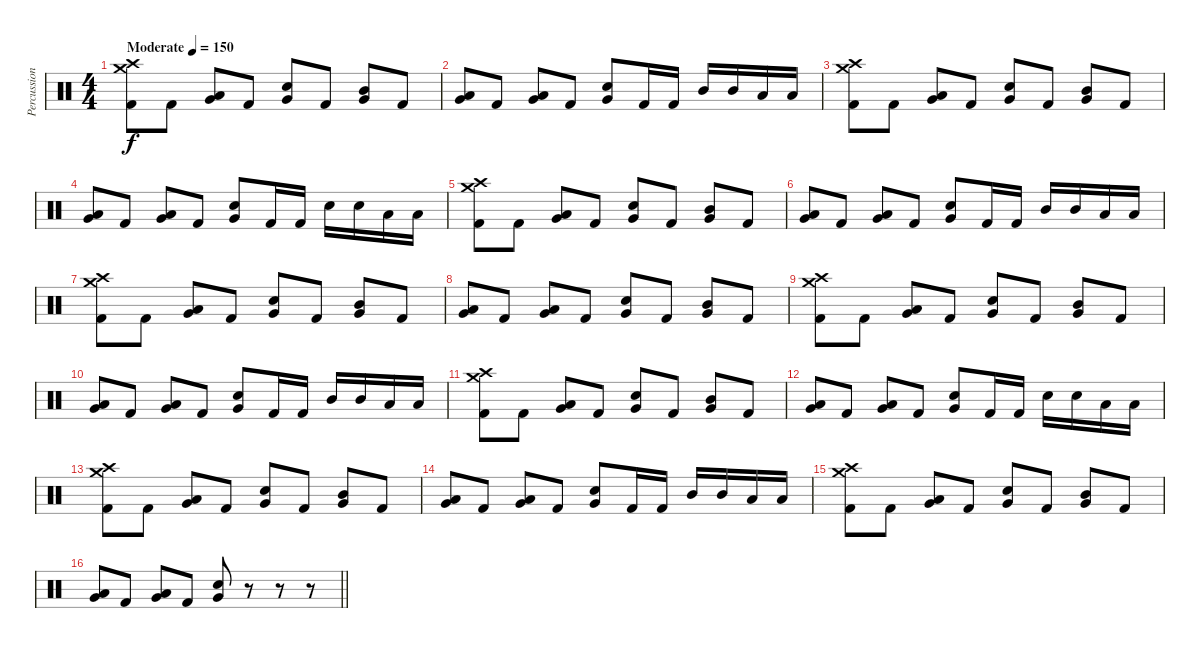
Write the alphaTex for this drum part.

\track ("Percussion" "Percussion") {instrument percussion}
\staff {score}
\articulation defaults
\ts (4 4)
\tempo (150 "Moderate")
\clef neutral
\ks c
("Crash high (hit)" "Crash medium (hit)" "Kick (hit) 2").8{dy f} "Kick (hit) 2".8 ("Low Tom (hit)" "Very Low Tom (hit)").8 "Kick (hit) 2".8 ("Snare (hit) 2" "Very Low Tom (hit)").8 "Kick (hit) 2".8 ("Mid Tom (hit)" "Very Low Tom (hit)").8 "Kick (hit) 2".8 |
("Low Tom (hit)" "Very Low Tom (hit)").8 "Kick (hit) 2".8 ("Low Tom (hit)" "Very Low Tom (hit)").8 "Kick (hit) 2".8 ("Snare (hit) 2" "Very Low Tom (hit)").8 "Kick (hit) 2".16 "Kick (hit) 2".16 "Mid Tom (hit)".16 "Mid Tom (hit)".16 "Low Tom (hit)".16 "Low Tom (hit)".16 |
("Crash high (hit)" "Crash medium (hit)" "Kick (hit) 2").8 "Kick (hit) 2".8 ("Low Tom (hit)" "Very Low Tom (hit)").8 "Kick (hit) 2".8 ("Snare (hit) 2" "Very Low Tom (hit)").8 "Kick (hit) 2".8 ("Mid Tom (hit)" "Very Low Tom (hit)").8 "Kick (hit) 2".8 |
("Low Tom (hit)" "Very Low Tom (hit)").8 "Kick (hit) 2".8 ("Low Tom (hit)" "Very Low Tom (hit)").8 "Kick (hit) 2".8 ("Snare (hit) 2" "Very Low Tom (hit)").8 "Kick (hit) 2".16 "Kick (hit) 2".16 "Snare (hit) 2".16 "Snare (hit) 2".16 "Low Tom (hit)".16 "Low Tom (hit)".16 |
("Crash high (hit)" "Crash medium (hit)" "Kick (hit) 2").8 "Kick (hit) 2".8 ("Low Tom (hit)" "Very Low Tom (hit)").8 "Kick (hit) 2".8 ("Snare (hit) 2" "Very Low Tom (hit)").8 "Kick (hit) 2".8 ("Mid Tom (hit)" "Very Low Tom (hit)").8 "Kick (hit) 2".8 |
("Low Tom (hit)" "Very Low Tom (hit)").8 "Kick (hit) 2".8 ("Low Tom (hit)" "Very Low Tom (hit)").8 "Kick (hit) 2".8 ("Snare (hit) 2" "Very Low Tom (hit)").8 "Kick (hit) 2".16 "Kick (hit) 2".16 "Mid Tom (hit)".16 "Mid Tom (hit)".16 "Low Tom (hit)".16 "Low Tom (hit)".16 |
("Crash high (hit)" "Crash medium (hit)" "Kick (hit) 2").8 "Kick (hit) 2".8 ("Low Tom (hit)" "Very Low Tom (hit)").8 "Kick (hit) 2".8 ("Snare (hit) 2" "Very Low Tom (hit)").8 "Kick (hit) 2".8 ("Mid Tom (hit)" "Very Low Tom (hit)").8 "Kick (hit) 2".8 |
("Low Tom (hit)" "Very Low Tom (hit)").8 "Kick (hit) 2".8 ("Low Tom (hit)" "Very Low Tom (hit)").8 "Kick (hit) 2".8 ("Snare (hit) 2" "Very Low Tom (hit)").8 "Kick (hit) 2".8 ("Mid Tom (hit)" "Very Low Tom (hit)").8 "Kick (hit) 2".8 |
("Crash high (hit)" "Crash medium (hit)" "Kick (hit) 2").8 "Kick (hit) 2".8 ("Low Tom (hit)" "Very Low Tom (hit)").8 "Kick (hit) 2".8 ("Snare (hit) 2" "Very Low Tom (hit)").8 "Kick (hit) 2".8 ("Mid Tom (hit)" "Very Low Tom (hit)").8 "Kick (hit) 2".8 |
("Low Tom (hit)" "Very Low Tom (hit)").8 "Kick (hit) 2".8 ("Low Tom (hit)" "Very Low Tom (hit)").8 "Kick (hit) 2".8 ("Snare (hit) 2" "Very Low Tom (hit)").8 "Kick (hit) 2".16 "Kick (hit) 2".16 "Mid Tom (hit)".16 "Mid Tom (hit)".16 "Low Tom (hit)".16 "Low Tom (hit)".16 |
("Crash high (hit)" "Crash medium (hit)" "Kick (hit) 2").8 "Kick (hit) 2".8 ("Low Tom (hit)" "Very Low Tom (hit)").8 "Kick (hit) 2".8 ("Snare (hit) 2" "Very Low Tom (hit)").8 "Kick (hit) 2".8 ("Mid Tom (hit)" "Very Low Tom (hit)").8 "Kick (hit) 2".8 |
("Low Tom (hit)" "Very Low Tom (hit)").8 "Kick (hit) 2".8 ("Low Tom (hit)" "Very Low Tom (hit)").8 "Kick (hit) 2".8 ("Snare (hit) 2" "Very Low Tom (hit)").8 "Kick (hit) 2".16 "Kick (hit) 2".16 "Snare (hit) 2".16 "Snare (hit) 2".16 "Low Tom (hit)".16 "Low Tom (hit)".16 |
("Crash high (hit)" "Crash medium (hit)" "Kick (hit) 2").8 "Kick (hit) 2".8 ("Low Tom (hit)" "Very Low Tom (hit)").8 "Kick (hit) 2".8 ("Snare (hit) 2" "Very Low Tom (hit)").8 "Kick (hit) 2".8 ("Mid Tom (hit)" "Very Low Tom (hit)").8 "Kick (hit) 2".8 |
("Low Tom (hit)" "Very Low Tom (hit)").8 "Kick (hit) 2".8 ("Low Tom (hit)" "Very Low Tom (hit)").8 "Kick (hit) 2".8 ("Snare (hit) 2" "Very Low Tom (hit)").8 "Kick (hit) 2".16 "Kick (hit) 2".16 "Mid Tom (hit)".16 "Mid Tom (hit)".16 "Low Tom (hit)".16 "Low Tom (hit)".16 |
("Crash high (hit)" "Crash medium (hit)" "Kick (hit) 2").8 "Kick (hit) 2".8 ("Low Tom (hit)" "Very Low Tom (hit)").8 "Kick (hit) 2".8 ("Snare (hit) 2" "Very Low Tom (hit)").8 "Kick (hit) 2".8 ("Mid Tom (hit)" "Very Low Tom (hit)").8 "Kick (hit) 2".8 |
\barLineRight lightlight
("Low Tom (hit)" "Very Low Tom (hit)").8 "Kick (hit) 2".8 ("Low Tom (hit)" "Very Low Tom (hit)").8 "Kick (hit) 2".8 ("Snare (hit) 2" "Very Low Tom (hit)").8 r.8 r.8 r.8
